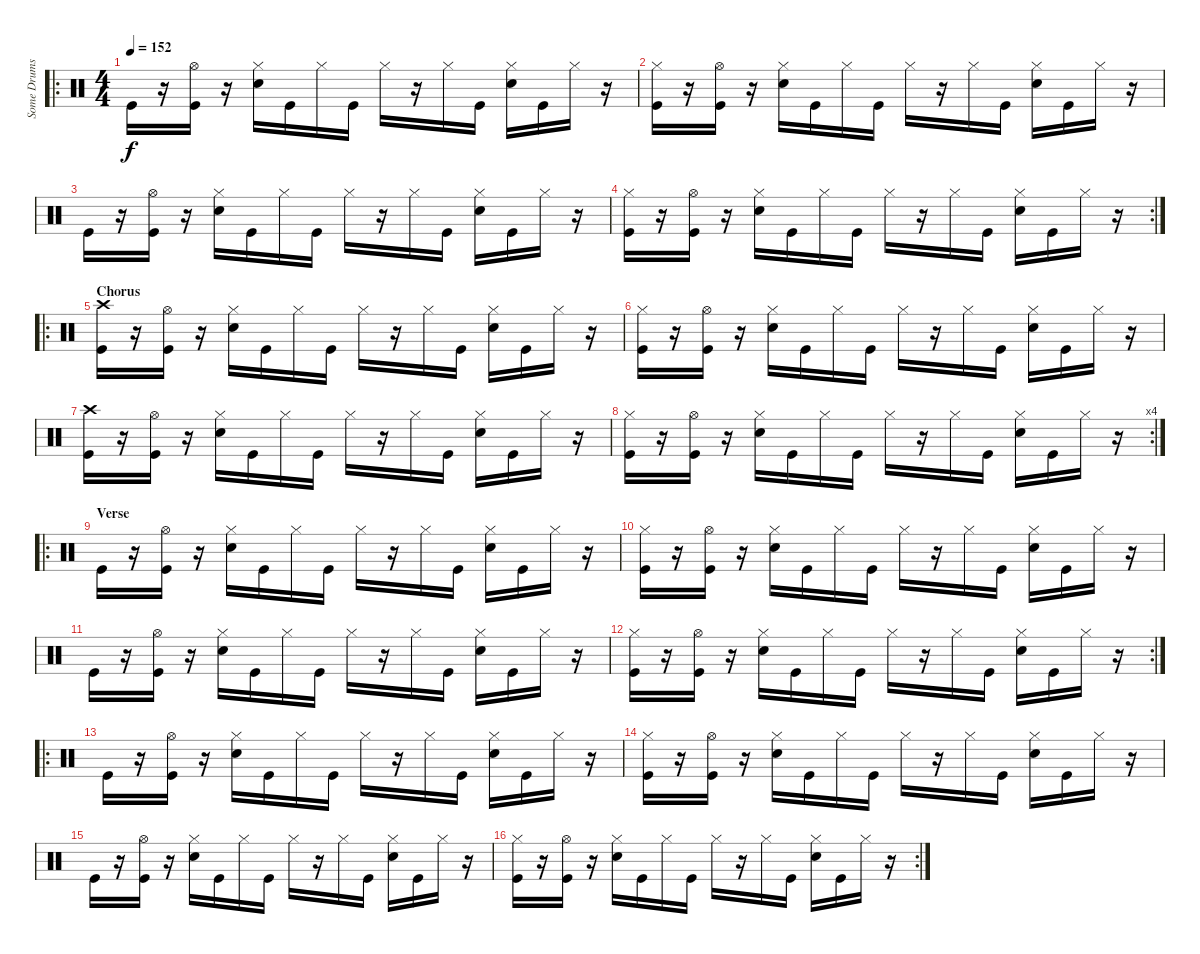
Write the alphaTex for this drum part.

\track ("Some Drums" "Some Drums") {instrument percussion}
\staff {score}
\articulation defaults
\ro
\ts (4 4)
\tempo 152
\clef neutral
\ks c "Kick (hit)".16{dy f}
r.16 ("Hi-Hat (open)" "Kick (hit)").16 r.16 ("Hi-Hat (closed)" "Electric Snare (hit)").16 "Kick (hit)".16 "Hi-Hat (closed)".16 "Kick (hit)".16 "Hi-Hat (closed)".16 r.16 "Hi-Hat (closed)".16 "Kick (hit)".16 ("Hi-Hat (closed)" "Electric Snare (hit)").16 "Kick (hit)".16 "Hi-Hat (closed)".16 r.16 |
("Hi-Hat (closed)" "Kick (hit)").16 r.16 ("Hi-Hat (open)" "Kick (hit)").16 r.16 ("Hi-Hat (closed)" "Electric Snare (hit)").16 "Kick (hit)".16 "Hi-Hat (closed)".16 "Kick (hit)".16 "Hi-Hat (closed)".16 r.16 "Hi-Hat (closed)".16 "Kick (hit)".16 ("Hi-Hat (closed)" "Electric Snare (hit)").16 "Kick (hit)".16 "Hi-Hat (closed)".16 r.16 |
"Kick (hit)".16 r.16 ("Hi-Hat (open)" "Kick (hit)").16 r.16 ("Hi-Hat (closed)" "Electric Snare (hit)").16 "Kick (hit)".16 "Hi-Hat (closed)".16 "Kick (hit)".16 "Hi-Hat (closed)".16 r.16 "Hi-Hat (closed)".16 "Kick (hit)".16 ("Hi-Hat (closed)" "Electric Snare (hit)").16 "Kick (hit)".16 "Hi-Hat (closed)".16 r.16 |
\rc 2
("Hi-Hat (closed)" "Kick (hit)").16 r.16 ("Hi-Hat (open)" "Kick (hit)").16 r.16 ("Hi-Hat (closed)" "Electric Snare (hit)").16 "Kick (hit)".16 "Hi-Hat (closed)".16 "Kick (hit)".16 "Hi-Hat (closed)".16 r.16 "Hi-Hat (closed)".16 "Kick (hit)".16 ("Hi-Hat (closed)" "Electric Snare (hit)").16 "Kick (hit)".16 "Hi-Hat (closed)".16 r.16 |
\ro
\section ("" "Chorus")
("Crash high (hit)" "Kick (hit)").16 r.16 ("Hi-Hat (open)" "Kick (hit)").16 r.16 ("Hi-Hat (closed)" "Electric Snare (hit)").16 "Kick (hit)".16 "Hi-Hat (closed)".16 "Kick (hit)".16 "Hi-Hat (closed)".16 r.16 "Hi-Hat (closed)".16 "Kick (hit)".16 ("Hi-Hat (closed)" "Electric Snare (hit)").16 "Kick (hit)".16 "Hi-Hat (closed)".16 r.16 |
("Hi-Hat (closed)" "Kick (hit)").16 r.16 ("Hi-Hat (open)" "Kick (hit)").16 r.16 ("Hi-Hat (closed)" "Electric Snare (hit)").16 "Kick (hit)".16 "Hi-Hat (closed)".16 "Kick (hit)".16 "Hi-Hat (closed)".16 r.16 "Hi-Hat (closed)".16 "Kick (hit)".16 ("Hi-Hat (closed)" "Electric Snare (hit)").16 "Kick (hit)".16 "Hi-Hat (closed)".16 r.16 |
("Crash high (hit)" "Kick (hit)").16 r.16 ("Hi-Hat (open)" "Kick (hit)").16 r.16 ("Hi-Hat (closed)" "Electric Snare (hit)").16 "Kick (hit)".16 "Hi-Hat (closed)".16 "Kick (hit)".16 "Hi-Hat (closed)".16 r.16 "Hi-Hat (closed)".16 "Kick (hit)".16 ("Hi-Hat (closed)" "Electric Snare (hit)").16 "Kick (hit)".16 "Hi-Hat (closed)".16 r.16 |
\rc 4
("Hi-Hat (closed)" "Kick (hit)").16 r.16 ("Hi-Hat (open)" "Kick (hit)").16 r.16 ("Hi-Hat (closed)" "Electric Snare (hit)").16 "Kick (hit)".16 "Hi-Hat (closed)".16 "Kick (hit)".16 "Hi-Hat (closed)".16 r.16 "Hi-Hat (closed)".16 "Kick (hit)".16 ("Hi-Hat (closed)" "Electric Snare (hit)").16 "Kick (hit)".16 "Hi-Hat (closed)".16 r.16 |
\ro
\section ("" "Verse")
"Kick (hit)".16 r.16 ("Hi-Hat (open)" "Kick (hit)").16 r.16 ("Hi-Hat (closed)" "Electric Snare (hit)").16 "Kick (hit)".16 "Hi-Hat (closed)".16 "Kick (hit)".16 "Hi-Hat (closed)".16 r.16 "Hi-Hat (closed)".16 "Kick (hit)".16 ("Hi-Hat (closed)" "Electric Snare (hit)").16 "Kick (hit)".16 "Hi-Hat (closed)".16 r.16 |
("Hi-Hat (closed)" "Kick (hit)").16 r.16 ("Hi-Hat (open)" "Kick (hit)").16 r.16 ("Hi-Hat (closed)" "Electric Snare (hit)").16 "Kick (hit)".16 "Hi-Hat (closed)".16 "Kick (hit)".16 "Hi-Hat (closed)".16 r.16 "Hi-Hat (closed)".16 "Kick (hit)".16 ("Hi-Hat (closed)" "Electric Snare (hit)").16 "Kick (hit)".16 "Hi-Hat (closed)".16 r.16 |
"Kick (hit)".16 r.16 ("Hi-Hat (open)" "Kick (hit)").16 r.16 ("Hi-Hat (closed)" "Electric Snare (hit)").16 "Kick (hit)".16 "Hi-Hat (closed)".16 "Kick (hit)".16 "Hi-Hat (closed)".16 r.16 "Hi-Hat (closed)".16 "Kick (hit)".16 ("Hi-Hat (closed)" "Electric Snare (hit)").16 "Kick (hit)".16 "Hi-Hat (closed)".16 r.16 |
\rc 2
("Hi-Hat (closed)" "Kick (hit)").16 r.16 ("Hi-Hat (open)" "Kick (hit)").16 r.16 ("Hi-Hat (closed)" "Electric Snare (hit)").16 "Kick (hit)".16 "Hi-Hat (closed)".16 "Kick (hit)".16 "Hi-Hat (closed)".16 r.16 "Hi-Hat (closed)".16 "Kick (hit)".16 ("Hi-Hat (closed)" "Electric Snare (hit)").16 "Kick (hit)".16 "Hi-Hat (closed)".16 r.16 |
\ro "Kick (hit)".16
r.16 ("Hi-Hat (open)" "Kick (hit)").16 r.16 ("Hi-Hat (closed)" "Electric Snare (hit)").16 "Kick (hit)".16 "Hi-Hat (closed)".16 "Kick (hit)".16 "Hi-Hat (closed)".16 r.16 "Hi-Hat (closed)".16 "Kick (hit)".16 ("Hi-Hat (closed)" "Electric Snare (hit)").16 "Kick (hit)".16 "Hi-Hat (closed)".16 r.16 |
("Hi-Hat (closed)" "Kick (hit)").16 r.16 ("Hi-Hat (open)" "Kick (hit)").16 r.16 ("Hi-Hat (closed)" "Electric Snare (hit)").16 "Kick (hit)".16 "Hi-Hat (closed)".16 "Kick (hit)".16 "Hi-Hat (closed)".16 r.16 "Hi-Hat (closed)".16 "Kick (hit)".16 ("Hi-Hat (closed)" "Electric Snare (hit)").16 "Kick (hit)".16 "Hi-Hat (closed)".16 r.16 |
"Kick (hit)".16 r.16 ("Hi-Hat (open)" "Kick (hit)").16 r.16 ("Hi-Hat (closed)" "Electric Snare (hit)").16 "Kick (hit)".16 "Hi-Hat (closed)".16 "Kick (hit)".16 "Hi-Hat (closed)".16 r.16 "Hi-Hat (closed)".16 "Kick (hit)".16 ("Hi-Hat (closed)" "Electric Snare (hit)").16 "Kick (hit)".16 "Hi-Hat (closed)".16 r.16 |
\rc 2
("Hi-Hat (closed)" "Kick (hit)").16 r.16 ("Hi-Hat (open)" "Kick (hit)").16 r.16 ("Hi-Hat (closed)" "Electric Snare (hit)").16 "Kick (hit)".16 "Hi-Hat (closed)".16 "Kick (hit)".16 "Hi-Hat (closed)".16 r.16 "Hi-Hat (closed)".16 "Kick (hit)".16 ("Hi-Hat (closed)" "Electric Snare (hit)").16 "Kick (hit)".16 "Hi-Hat (closed)".16 r.16
